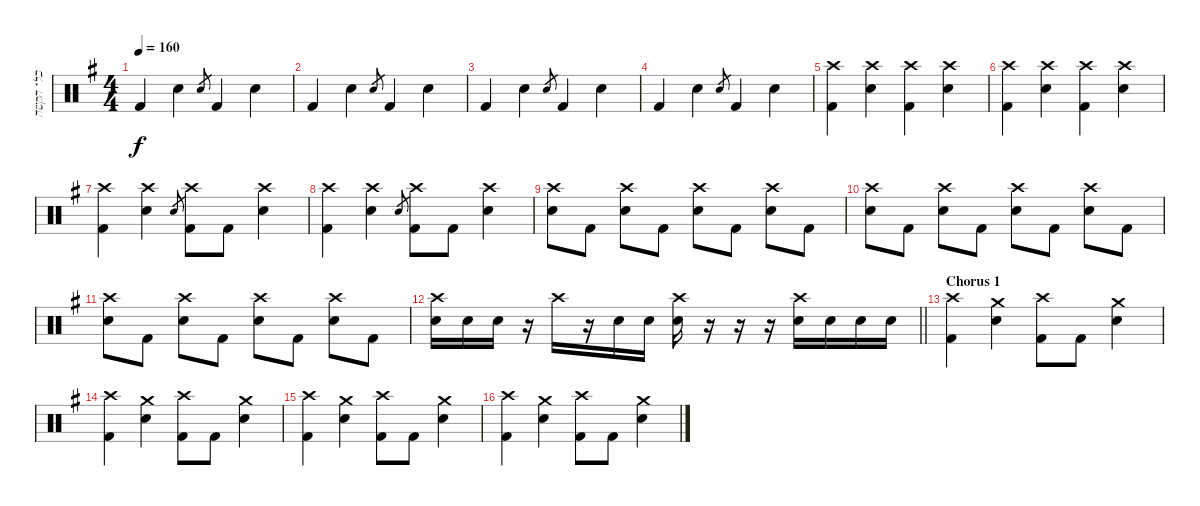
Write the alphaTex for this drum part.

\track ("כלי הקשה" "כלי הקשה") {instrument percussion bank 127}
\staff {score}
\articulation defaults
\ts (4 4)
\tempo 160
\clef neutral
\ks eminor "Kick (hit) 2".4{dy f} "Electric Snare (hit)".4 "Electric Snare (hit)".8{gr} "Kick (hit) 2".4 "Electric Snare (hit)".4
|
"Kick (hit) 2".4 "Electric Snare (hit)".4 "Electric Snare (hit)".8{gr} "Kick (hit) 2".4 "Electric Snare (hit)".4 |
"Kick (hit) 2".4 "Electric Snare (hit)".4 "Electric Snare (hit)".8{gr} "Kick (hit) 2".4 "Electric Snare (hit)".4 |
"Kick (hit) 2".4 "Electric Snare (hit)".4 "Electric Snare (hit)".8{gr} "Kick (hit) 2".4 "Electric Snare (hit)".4 |
("Crash high (hit)" "Kick (hit) 2").4 ("Crash high (hit)" "Electric Snare (hit)").4 ("Crash high (hit)" "Kick (hit) 2").4 ("Crash high (hit)" "Electric Snare (hit)").4 |
("Crash high (hit)" "Kick (hit) 2").4 ("Crash high (hit)" "Electric Snare (hit)").4 ("Crash high (hit)" "Kick (hit) 2").4 ("Crash high (hit)" "Electric Snare (hit)").4 |
("Crash high (hit)" "Kick (hit) 2").4 ("Crash high (hit)" "Electric Snare (hit)").4 "Electric Snare (hit)".8{gr} ("Crash high (hit)" "Kick (hit) 2").8 "Kick (hit) 2".8 ("Crash high (hit)" "Electric Snare (hit)").4 |
("Crash high (hit)" "Kick (hit) 2").4 ("Crash high (hit)" "Electric Snare (hit)").4 "Electric Snare (hit)".8{gr} ("Crash high (hit)" "Kick (hit) 2").8 "Kick (hit) 2".8 ("Crash high (hit)" "Electric Snare (hit)").4 |
("Crash high (hit)" "Electric Snare (hit)").8 "Kick (hit) 2".8 ("Crash high (hit)" "Electric Snare (hit)").8 "Kick (hit) 2".8 ("Crash high (hit)" "Electric Snare (hit)").8 "Kick (hit) 2".8 ("Crash high (hit)" "Electric Snare (hit)").8 "Kick (hit) 2".8 |
("Crash high (hit)" "Electric Snare (hit)").8 "Kick (hit) 2".8 ("Crash high (hit)" "Electric Snare (hit)").8 "Kick (hit) 2".8 ("Crash high (hit)" "Electric Snare (hit)").8 "Kick (hit) 2".8 ("Crash high (hit)" "Electric Snare (hit)").8 "Kick (hit) 2".8 |
("Crash high (hit)" "Electric Snare (hit)").8 "Kick (hit) 2".8 ("Crash high (hit)" "Electric Snare (hit)").8 "Kick (hit) 2".8 ("Crash high (hit)" "Electric Snare (hit)").8 "Kick (hit) 2".8 ("Crash high (hit)" "Electric Snare (hit)").8 "Kick (hit) 2".8 |
\barLineRight lightlight
("Crash high (hit)" "Electric Snare (hit)").16 "Electric Snare (hit)".16 "Electric Snare (hit)".16 r.16 "Crash high (hit)".16 r.16 "Electric Snare (hit)".16 "Electric Snare (hit)".16 ("Crash high (hit)" "Electric Snare (hit)").16 r.16 r.16 r.16 ("Crash high (hit)" "Electric Snare (hit)").16 "Electric Snare (hit)".16 "Electric Snare (hit)".16 "Electric Snare (hit)".16 |
\section ("" "Chorus 1")
("Crash high (hit)" "Kick (hit) 2").4 ("Crash medium (hit)" "Electric Snare (hit)").4 ("Crash high (hit)" "Kick (hit) 2").8 "Kick (hit) 2".8 ("Crash medium (hit)" "Electric Snare (hit)").4 |
("Crash high (hit)" "Kick (hit) 2").4 ("Crash medium (hit)" "Electric Snare (hit)").4 ("Crash high (hit)" "Kick (hit) 2").8 "Kick (hit) 2".8 ("Crash medium (hit)" "Electric Snare (hit)").4 |
("Crash high (hit)" "Kick (hit) 2").4 ("Crash medium (hit)" "Electric Snare (hit)").4 ("Crash high (hit)" "Kick (hit) 2").8 "Kick (hit) 2".8 ("Crash medium (hit)" "Electric Snare (hit)").4 |
("Crash high (hit)" "Kick (hit) 2").4 ("Crash medium (hit)" "Electric Snare (hit)").4 ("Crash high (hit)" "Kick (hit) 2").8 "Kick (hit) 2".8 ("Crash medium (hit)" "Electric Snare (hit)").4
